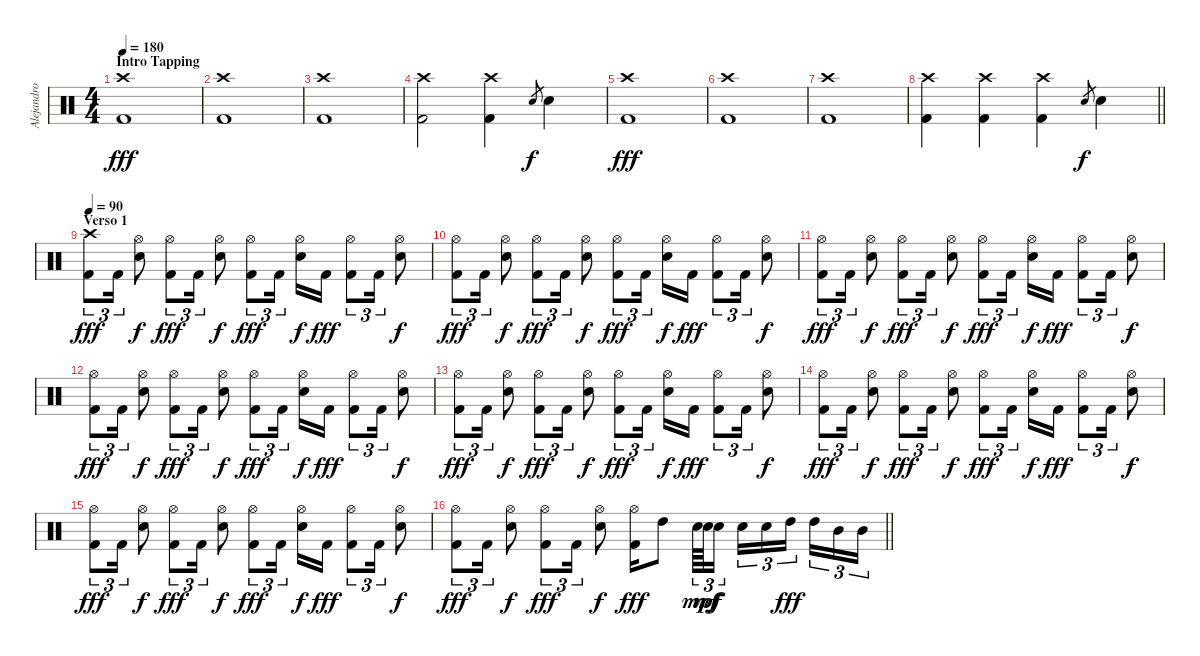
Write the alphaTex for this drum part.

\track ("Alejandro Gutiérrez" "Alejandro ") {instrument percussion}
\staff {score}
\articulation defaults
\ts (4 4)
\section ("" "Intro Tapping")
\tempo 180
\clef neutral
\ks c
("Crash high (hit)" "Kick (hit) 2").1{dy fff} |
("Crash high (hit)" "Kick (hit) 2").1 |
("Crash high (hit)" "Kick (hit) 2").1 |
("Crash high (hit)" "Kick (hit) 2").2 ("Crash high (hit)" "Kick (hit) 2").4 "Electric Snare (hit)".8{gr dy f} "Electric Snare (hit)".4 |
("Crash high (hit)" "Kick (hit) 2").1{dy fff} |
("Crash high (hit)" "Kick (hit) 2").1 |
("Crash high (hit)" "Kick (hit) 2").1 |
\barLineRight lightlight
("Crash high (hit)" "Kick (hit) 2").4 ("Crash high (hit)" "Kick (hit) 2").4 ("Crash high (hit)" "Kick (hit) 2").4 "Electric Snare (hit)".8{gr dy f} "Electric Snare (hit)".4 |
\section ("" "Verso 1")
\tempo 90
("Crash high (hit)" "Kick (hit) 2").8{tu (3 2) dy fff} "Kick (hit) 2".16{tu (3 2)} ("Hi-Hat (open)" "Electric Snare (hit)").8{dy f} ("Hi-Hat (open)" "Kick (hit) 2").8{tu (3 2) dy fff} "Kick (hit) 2".16{tu (3 2)} ("Hi-Hat (open)" "Electric Snare (hit)").8{dy f} ("Hi-Hat (open)" "Kick (hit) 2").8{tu (3 2) dy fff} "Kick (hit) 2".16{tu (3 2) beam splitsecondary} ("Hi-Hat (open)" "Electric Snare (hit)").16{dy f} "Kick (hit) 2".16{dy fff} ("Hi-Hat (open)" "Kick (hit) 2").8{tu (3 2)} "Kick (hit) 2".16{tu (3 2)} ("Hi-Hat (open)" "Electric Snare (hit)").8{dy f} |
("Hi-Hat (open)" "Kick (hit) 2").8{tu (3 2) dy fff} "Kick (hit) 2".16{tu (3 2)} ("Hi-Hat (open)" "Electric Snare (hit)").8{dy f} ("Hi-Hat (open)" "Kick (hit) 2").8{tu (3 2) dy fff} "Kick (hit) 2".16{tu (3 2)} ("Hi-Hat (open)" "Electric Snare (hit)").8{dy f} ("Hi-Hat (open)" "Kick (hit) 2").8{tu (3 2) dy fff} "Kick (hit) 2".16{tu (3 2) beam splitsecondary} ("Hi-Hat (open)" "Electric Snare (hit)").16{dy f} "Kick (hit) 2".16{dy fff} ("Hi-Hat (open)" "Kick (hit) 2").8{tu (3 2)} "Kick (hit) 2".16{tu (3 2)} ("Hi-Hat (open)" "Electric Snare (hit)").8{dy f} |
("Hi-Hat (open)" "Kick (hit) 2").8{tu (3 2) dy fff} "Kick (hit) 2".16{tu (3 2)} ("Hi-Hat (open)" "Electric Snare (hit)").8{dy f} ("Hi-Hat (open)" "Kick (hit) 2").8{tu (3 2) dy fff} "Kick (hit) 2".16{tu (3 2)} ("Hi-Hat (open)" "Electric Snare (hit)").8{dy f} ("Hi-Hat (open)" "Kick (hit) 2").8{tu (3 2) dy fff} "Kick (hit) 2".16{tu (3 2) beam splitsecondary} ("Hi-Hat (open)" "Electric Snare (hit)").16{dy f} "Kick (hit) 2".16{dy fff} ("Hi-Hat (open)" "Kick (hit) 2").8{tu (3 2)} "Kick (hit) 2".16{tu (3 2)} ("Hi-Hat (open)" "Electric Snare (hit)").8{dy f} |
("Hi-Hat (open)" "Kick (hit) 2").8{tu (3 2) dy fff} "Kick (hit) 2".16{tu (3 2)} ("Hi-Hat (open)" "Electric Snare (hit)").8{dy f} ("Hi-Hat (open)" "Kick (hit) 2").8{tu (3 2) dy fff} "Kick (hit) 2".16{tu (3 2)} ("Hi-Hat (open)" "Electric Snare (hit)").8{dy f} ("Hi-Hat (open)" "Kick (hit) 2").8{tu (3 2) dy fff} "Kick (hit) 2".16{tu (3 2) beam splitsecondary} ("Hi-Hat (open)" "Electric Snare (hit)").16{dy f} "Kick (hit) 2".16{dy fff} ("Hi-Hat (open)" "Kick (hit) 2").8{tu (3 2)} "Kick (hit) 2".16{tu (3 2)} ("Hi-Hat (open)" "Electric Snare (hit)").8{dy f} |
("Hi-Hat (open)" "Kick (hit) 2").8{tu (3 2) dy fff} "Kick (hit) 2".16{tu (3 2)} ("Hi-Hat (open)" "Electric Snare (hit)").8{dy f} ("Hi-Hat (open)" "Kick (hit) 2").8{tu (3 2) dy fff} "Kick (hit) 2".16{tu (3 2)} ("Hi-Hat (open)" "Electric Snare (hit)").8{dy f} ("Hi-Hat (open)" "Kick (hit) 2").8{tu (3 2) dy fff} "Kick (hit) 2".16{tu (3 2) beam splitsecondary} ("Hi-Hat (open)" "Electric Snare (hit)").16{dy f} "Kick (hit) 2".16{dy fff} ("Hi-Hat (open)" "Kick (hit) 2").8{tu (3 2)} "Kick (hit) 2".16{tu (3 2)} ("Hi-Hat (open)" "Electric Snare (hit)").8{dy f} |
("Hi-Hat (open)" "Kick (hit) 2").8{tu (3 2) dy fff} "Kick (hit) 2".16{tu (3 2)} ("Hi-Hat (open)" "Electric Snare (hit)").8{dy f} ("Hi-Hat (open)" "Kick (hit) 2").8{tu (3 2) dy fff} "Kick (hit) 2".16{tu (3 2)} ("Hi-Hat (open)" "Electric Snare (hit)").8{dy f} ("Hi-Hat (open)" "Kick (hit) 2").8{tu (3 2) dy fff} "Kick (hit) 2".16{tu (3 2) beam splitsecondary} ("Hi-Hat (open)" "Electric Snare (hit)").16{dy f} "Kick (hit) 2".16{dy fff} ("Hi-Hat (open)" "Kick (hit) 2").8{tu (3 2)} "Kick (hit) 2".16{tu (3 2)} ("Hi-Hat (open)" "Electric Snare (hit)").8{dy f} |
("Hi-Hat (open)" "Kick (hit) 2").8{tu (3 2) dy fff} "Kick (hit) 2".16{tu (3 2)} ("Hi-Hat (open)" "Electric Snare (hit)").8{dy f} ("Hi-Hat (open)" "Kick (hit) 2").8{tu (3 2) dy fff} "Kick (hit) 2".16{tu (3 2)} ("Hi-Hat (open)" "Electric Snare (hit)").8{dy f} ("Hi-Hat (open)" "Kick (hit) 2").8{tu (3 2) dy fff} "Kick (hit) 2".16{tu (3 2) beam splitsecondary} ("Hi-Hat (open)" "Electric Snare (hit)").16{dy f} "Kick (hit) 2".16{dy fff} ("Hi-Hat (open)" "Kick (hit) 2").8{tu (3 2)} "Kick (hit) 2".16{tu (3 2)} ("Hi-Hat (open)" "Electric Snare (hit)").8{dy f} |
\barLineRight lightlight
("Hi-Hat (open)" "Kick (hit) 2").8{tu (3 2) dy fff} "Kick (hit) 2".16{tu (3 2)} ("Hi-Hat (open)" "Electric Snare (hit)").8{dy f} ("Hi-Hat (open)" "Kick (hit) 2").8{tu (3 2) dy fff} "Kick (hit) 2".16{tu (3 2)} ("Hi-Hat (open)" "Electric Snare (hit)").8{dy f} ("Hi-Hat (open)" "Kick (hit) 2").16{dy fff} "High Tom (hit)".8 "Electric Snare (hit)".64{tu (3 2) dy mp} "Electric Snare (hit)".64{tu (3 2) dy mf} "Electric Snare (hit)".16{tu (3 2) dy f} "Electric Snare (hit)".16{tu (3 2)} "Electric Snare (hit)".16{tu (3 2)} "High Tom (hit)".16{tu (3 2) dy fff beam splitsecondary} "High Tom (hit)".16{tu (3 2)} "Mid Tom (hit)".16{tu (3 2)} "Mid Tom (hit)".16{tu (3 2)}
